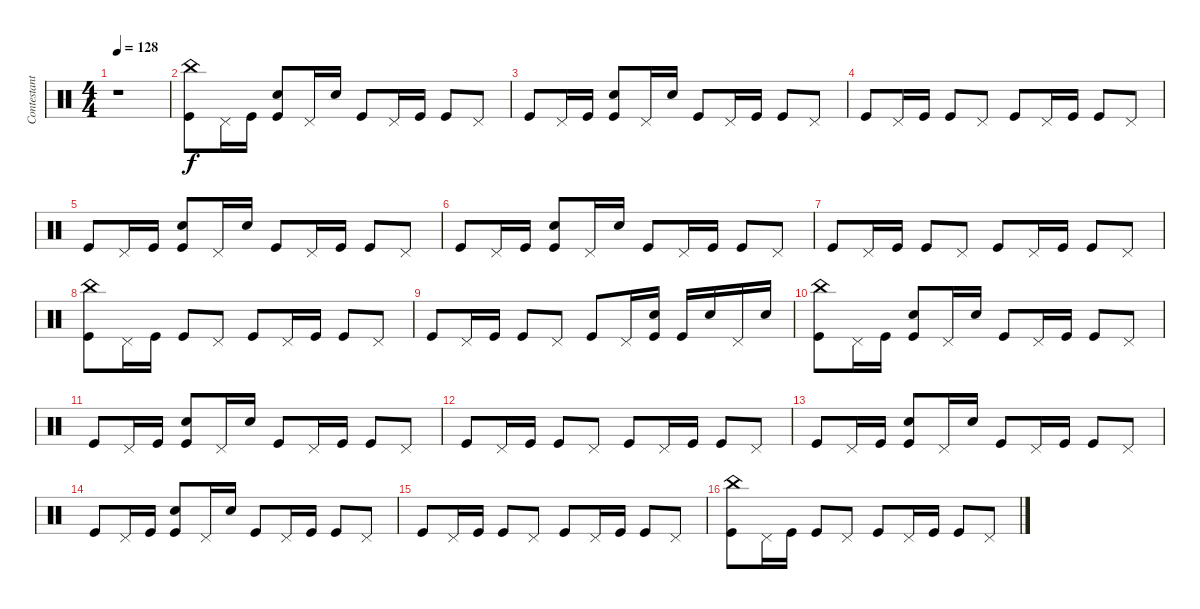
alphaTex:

\track ("Contestant #4" "Contestant") {instrument percussion}
\staff {score}
\articulation defaults
\ts (4 4)
\tempo 128
\clef neutral
\ks c
r.1{dy f} |
("China (hit)" "Kick (hit)").8 "Pedal Hi-Hat (hit)".16 "Kick (hit)".16 ("Snare (hit) 2" "Kick (hit)").8 "Pedal Hi-Hat (hit)".16 "Snare (hit) 2".16 "Kick (hit)".8 "Pedal Hi-Hat (hit)".16 "Kick (hit)".16 "Kick (hit)".8 "Pedal Hi-Hat (hit)".8 |
"Kick (hit)".8 "Pedal Hi-Hat (hit)".16 "Kick (hit)".16 ("Snare (hit) 2" "Kick (hit)").8 "Pedal Hi-Hat (hit)".16 "Snare (hit) 2".16 "Kick (hit)".8 "Pedal Hi-Hat (hit)".16 "Kick (hit)".16 "Kick (hit)".8 "Pedal Hi-Hat (hit)".8 |
"Kick (hit)".8 "Pedal Hi-Hat (hit)".16 "Kick (hit)".16 "Kick (hit)".8 "Pedal Hi-Hat (hit)".8 "Kick (hit)".8 "Pedal Hi-Hat (hit)".16 "Kick (hit)".16 "Kick (hit)".8 "Pedal Hi-Hat (hit)".8 |
"Kick (hit)".8 "Pedal Hi-Hat (hit)".16 "Kick (hit)".16 ("Snare (hit) 2" "Kick (hit)").8 "Pedal Hi-Hat (hit)".16 "Snare (hit) 2".16 "Kick (hit)".8 "Pedal Hi-Hat (hit)".16 "Kick (hit)".16 "Kick (hit)".8 "Pedal Hi-Hat (hit)".8 |
"Kick (hit)".8 "Pedal Hi-Hat (hit)".16 "Kick (hit)".16 ("Snare (hit) 2" "Kick (hit)").8 "Pedal Hi-Hat (hit)".16 "Snare (hit) 2".16 "Kick (hit)".8 "Pedal Hi-Hat (hit)".16 "Kick (hit)".16 "Kick (hit)".8 "Pedal Hi-Hat (hit)".8 |
"Kick (hit)".8 "Pedal Hi-Hat (hit)".16 "Kick (hit)".16 "Kick (hit)".8 "Pedal Hi-Hat (hit)".8 "Kick (hit)".8 "Pedal Hi-Hat (hit)".16 "Kick (hit)".16 "Kick (hit)".8 "Pedal Hi-Hat (hit)".8 |
("China (hit)" "Kick (hit)").8 "Pedal Hi-Hat (hit)".16 "Kick (hit)".16 "Kick (hit)".8 "Pedal Hi-Hat (hit)".8 "Kick (hit)".8 "Pedal Hi-Hat (hit)".16 "Kick (hit)".16 "Kick (hit)".8 "Pedal Hi-Hat (hit)".8 |
"Kick (hit)".8 "Pedal Hi-Hat (hit)".16 "Kick (hit)".16 "Kick (hit)".8 "Pedal Hi-Hat (hit)".8 "Kick (hit)".8 "Pedal Hi-Hat (hit)".16 ("Snare (hit) 2" "Kick (hit)").16 "Kick (hit)".16 "Snare (hit) 2".16 "Pedal Hi-Hat (hit)".16 "Snare (hit) 2".16 |
("China (hit)" "Kick (hit)").8 "Pedal Hi-Hat (hit)".16 "Kick (hit)".16 ("Snare (hit) 2" "Kick (hit)").8 "Pedal Hi-Hat (hit)".16 "Snare (hit) 2".16 "Kick (hit)".8 "Pedal Hi-Hat (hit)".16 "Kick (hit)".16 "Kick (hit)".8 "Pedal Hi-Hat (hit)".8 |
"Kick (hit)".8 "Pedal Hi-Hat (hit)".16 "Kick (hit)".16 ("Snare (hit) 2" "Kick (hit)").8 "Pedal Hi-Hat (hit)".16 "Snare (hit) 2".16 "Kick (hit)".8 "Pedal Hi-Hat (hit)".16 "Kick (hit)".16 "Kick (hit)".8 "Pedal Hi-Hat (hit)".8 |
"Kick (hit)".8 "Pedal Hi-Hat (hit)".16 "Kick (hit)".16 "Kick (hit)".8 "Pedal Hi-Hat (hit)".8 "Kick (hit)".8 "Pedal Hi-Hat (hit)".16 "Kick (hit)".16 "Kick (hit)".8 "Pedal Hi-Hat (hit)".8 |
"Kick (hit)".8 "Pedal Hi-Hat (hit)".16 "Kick (hit)".16 ("Snare (hit) 2" "Kick (hit)").8 "Pedal Hi-Hat (hit)".16 "Snare (hit) 2".16 "Kick (hit)".8 "Pedal Hi-Hat (hit)".16 "Kick (hit)".16 "Kick (hit)".8 "Pedal Hi-Hat (hit)".8 |
"Kick (hit)".8 "Pedal Hi-Hat (hit)".16 "Kick (hit)".16 ("Snare (hit) 2" "Kick (hit)").8 "Pedal Hi-Hat (hit)".16 "Snare (hit) 2".16 "Kick (hit)".8 "Pedal Hi-Hat (hit)".16 "Kick (hit)".16 "Kick (hit)".8 "Pedal Hi-Hat (hit)".8 |
"Kick (hit)".8 "Pedal Hi-Hat (hit)".16 "Kick (hit)".16 "Kick (hit)".8 "Pedal Hi-Hat (hit)".8 "Kick (hit)".8 "Pedal Hi-Hat (hit)".16 "Kick (hit)".16 "Kick (hit)".8 "Pedal Hi-Hat (hit)".8 |
("China (hit)" "Kick (hit)").8 "Pedal Hi-Hat (hit)".16 "Kick (hit)".16 "Kick (hit)".8 "Pedal Hi-Hat (hit)".8 "Kick (hit)".8 "Pedal Hi-Hat (hit)".16 "Kick (hit)".16 "Kick (hit)".8 "Pedal Hi-Hat (hit)".8
